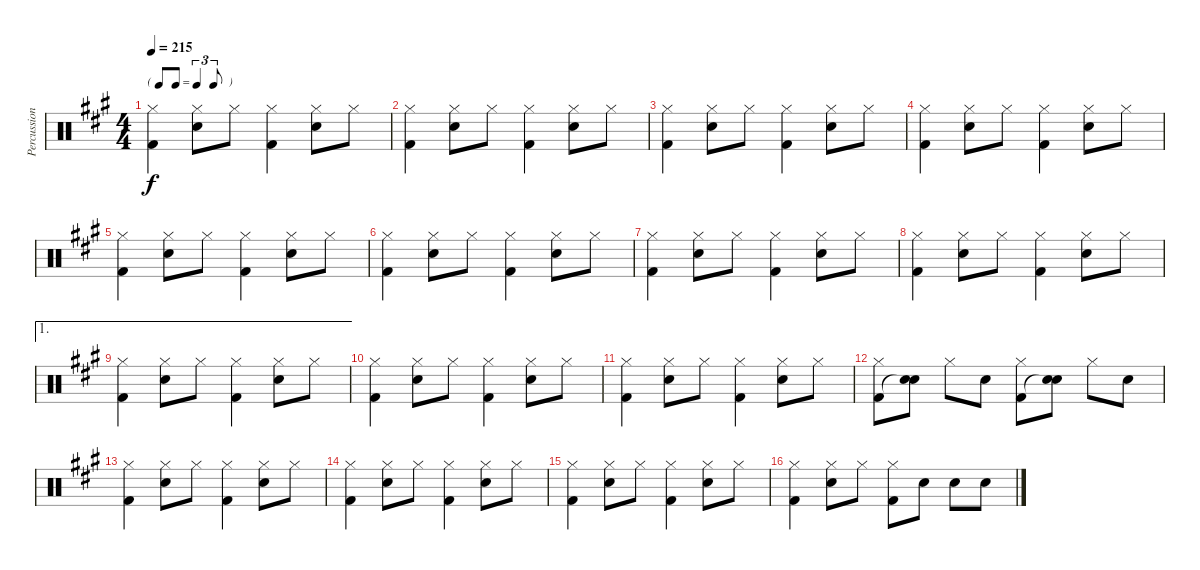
\track ("Percussion" "Percussion") {instrument percussion}
\staff {score}
\articulation defaults
\ts (4 4)
\tf triplet8th
\tempo 215
\clef neutral
\ks a
("Hi-Hat (closed)" "Kick (hit) 2").4{dy f} ("Hi-Hat (closed)" "Snare (hit) 2").8 "Hi-Hat (closed)".8 ("Hi-Hat (closed)" "Kick (hit) 2").4 ("Hi-Hat (closed)" "Snare (hit) 2").8 "Hi-Hat (closed)".8 |
("Hi-Hat (closed)" "Kick (hit) 2").4 ("Hi-Hat (closed)" "Snare (hit) 2").8 "Hi-Hat (closed)".8 ("Hi-Hat (closed)" "Kick (hit) 2").4 ("Hi-Hat (closed)" "Snare (hit) 2").8 "Hi-Hat (closed)".8 |
("Hi-Hat (closed)" "Kick (hit) 2").4 ("Hi-Hat (closed)" "Snare (hit) 2").8 "Hi-Hat (closed)".8 ("Hi-Hat (closed)" "Kick (hit) 2").4 ("Hi-Hat (closed)" "Snare (hit) 2").8 "Hi-Hat (closed)".8 |
("Hi-Hat (closed)" "Kick (hit) 2").4 ("Hi-Hat (closed)" "Snare (hit) 2").8 "Hi-Hat (closed)".8 ("Hi-Hat (closed)" "Kick (hit) 2").4 ("Hi-Hat (closed)" "Snare (hit) 2").8 "Hi-Hat (closed)".8 |
("Hi-Hat (closed)" "Kick (hit) 2").4 ("Hi-Hat (closed)" "Snare (hit) 2").8 "Hi-Hat (closed)".8 ("Hi-Hat (closed)" "Kick (hit) 2").4 ("Hi-Hat (closed)" "Snare (hit) 2").8 "Hi-Hat (closed)".8 |
("Hi-Hat (closed)" "Kick (hit) 2").4 ("Hi-Hat (closed)" "Snare (hit) 2").8 "Hi-Hat (closed)".8 ("Hi-Hat (closed)" "Kick (hit) 2").4 ("Hi-Hat (closed)" "Snare (hit) 2").8 "Hi-Hat (closed)".8 |
("Hi-Hat (closed)" "Kick (hit) 2").4 ("Hi-Hat (closed)" "Snare (hit) 2").8 "Hi-Hat (closed)".8 ("Hi-Hat (closed)" "Kick (hit) 2").4 ("Hi-Hat (closed)" "Snare (hit) 2").8 "Hi-Hat (closed)".8 |
("Hi-Hat (closed)" "Kick (hit) 2").4 ("Hi-Hat (closed)" "Snare (hit) 2").8 "Hi-Hat (closed)".8 ("Hi-Hat (closed)" "Kick (hit) 2").4 ("Hi-Hat (closed)" "Snare (hit) 2").8 "Hi-Hat (closed)".8 |
\ae 1
("Hi-Hat (closed)" "Kick (hit) 2").4 ("Hi-Hat (closed)" "Snare (hit) 2").8 "Hi-Hat (closed)".8 ("Hi-Hat (closed)" "Kick (hit) 2").4 ("Hi-Hat (closed)" "Snare (hit) 2").8 "Hi-Hat (closed)".8 |
("Hi-Hat (closed)" "Kick (hit) 2").4 ("Hi-Hat (closed)" "Snare (hit) 2").8 "Hi-Hat (closed)".8 ("Hi-Hat (closed)" "Kick (hit) 2").4 ("Hi-Hat (closed)" "Snare (hit) 2").8 "Hi-Hat (closed)".8 |
("Hi-Hat (closed)" "Kick (hit) 2").4 ("Hi-Hat (closed)" "Snare (hit) 2").8 "Hi-Hat (closed)".8 ("Hi-Hat (closed)" "Kick (hit) 2").4 ("Hi-Hat (closed)" "Snare (hit) 2").8 "Hi-Hat (closed)".8 |
("Hi-Hat (closed)" "Kick (hit) 2").8 ("Snare (hit) 2" "Snare (hit)"{t}).8 "Hi-Hat (closed)".8 "Snare (hit) 2".8 ("Hi-Hat (closed)" "Kick (hit) 2").8 ("Snare (hit) 2" "Snare (hit)"{t}).8 "Hi-Hat (closed)".8 "Snare (hit) 2".8 |
("Hi-Hat (closed)" "Kick (hit) 2").4 ("Hi-Hat (closed)" "Snare (hit) 2").8 "Hi-Hat (closed)".8 ("Hi-Hat (closed)" "Kick (hit) 2").4 ("Hi-Hat (closed)" "Snare (hit) 2").8 "Hi-Hat (closed)".8 |
("Hi-Hat (closed)" "Kick (hit) 2").4 ("Hi-Hat (closed)" "Snare (hit) 2").8 "Hi-Hat (closed)".8 ("Hi-Hat (closed)" "Kick (hit) 2").4 ("Hi-Hat (closed)" "Snare (hit) 2").8 "Hi-Hat (closed)".8 |
("Hi-Hat (closed)" "Kick (hit) 2").4 ("Hi-Hat (closed)" "Snare (hit) 2").8 "Hi-Hat (closed)".8 ("Hi-Hat (closed)" "Kick (hit) 2").4 ("Hi-Hat (closed)" "Snare (hit) 2").8 "Hi-Hat (closed)".8 |
("Hi-Hat (closed)" "Kick (hit) 2").4 ("Hi-Hat (closed)" "Snare (hit) 2").8 "Hi-Hat (closed)".8 ("Hi-Hat (closed)" "Kick (hit) 2").8 "Snare (hit) 2".8 "Snare (hit) 2".8 "Snare (hit) 2".8
